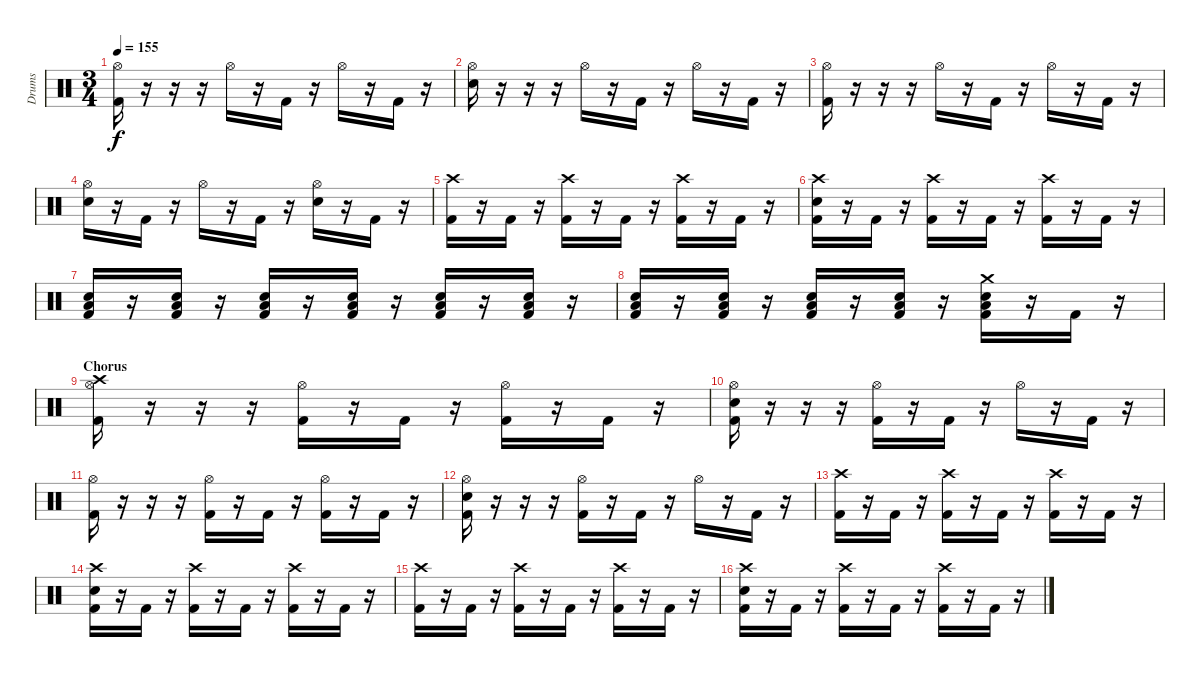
\track ("Drums" "Drums") {instrument percussion}
\staff {score}
\articulation defaults
\ts (3 4)
\tempo 155
\clef neutral
\ks c
("Hi-Hat (open)" "Kick (hit) 2").16{dy f} r.16 r.16 r.16 "Hi-Hat (open)".16 r.16 "Kick (hit) 2".16 r.16 "Hi-Hat (open)".16 r.16 "Kick (hit) 2".16 r.16 |
("Hi-Hat (open)" "Snare (hit) 2").16 r.16 r.16 r.16 "Hi-Hat (open)".16 r.16 "Kick (hit) 2".16 r.16 "Hi-Hat (open)".16 r.16 "Kick (hit) 2".16 r.16 |
("Hi-Hat (open)" "Kick (hit) 2").16 r.16 r.16 r.16 "Hi-Hat (open)".16 r.16 "Kick (hit) 2".16 r.16 "Hi-Hat (open)".16 r.16 "Kick (hit) 2".16 r.16 |
("Hi-Hat (open)" "Snare (hit) 2").16 r.16 "Kick (hit) 2".16 r.16 "Hi-Hat (open)".16 r.16 "Kick (hit) 2".16 r.16 ("Hi-Hat (open)" "Snare (hit) 2").16 r.16 "Kick (hit) 2".16 r.16 |
("Crash high (hit)" "Kick (hit) 2").16 r.16 "Kick (hit) 2".16 r.16 ("Crash high (hit)" "Kick (hit) 2").16 r.16 "Kick (hit) 2".16 r.16 ("Crash high (hit)" "Kick (hit) 2").16 r.16 "Kick (hit) 2".16 r.16 |
("Crash high (hit)" "Snare (hit) 2" "Kick (hit) 2").16 r.16 "Kick (hit) 2".16 r.16 ("Crash high (hit)" "Kick (hit) 2").16 r.16 "Kick (hit) 2".16 r.16 ("Crash high (hit)" "Kick (hit) 2").16 r.16 "Kick (hit) 2".16 r.16 |
("Low Floor Tom (hit)" "Snare (hit) 2" "Kick (hit) 2").16 r.16 ("Low Floor Tom (hit)" "Snare (hit) 2" "Kick (hit) 2").16 r.16 ("Low Floor Tom (hit)" "Snare (hit) 2" "Kick (hit) 2").16 r.16 ("Low Floor Tom (hit)" "Snare (hit) 2" "Kick (hit) 2").16 r.16 ("Low Floor Tom (hit)" "Snare (hit) 2" "Kick (hit) 2").16 r.16 ("Low Floor Tom (hit)" "Snare (hit) 2" "Kick (hit) 2").16 r.16 |
("Low Floor Tom (hit)" "Snare (hit) 2" "Kick (hit) 2").16 r.16 ("Low Floor Tom (hit)" "Snare (hit) 2" "Kick (hit) 2").16 r.16 ("Low Floor Tom (hit)" "Snare (hit) 2" "Kick (hit) 2").16 r.16 ("Low Floor Tom (hit)" "Snare (hit) 2" "Kick (hit) 2").16 r.16 ("Crash medium (hit)" "Low Floor Tom (hit)" "Snare (hit) 2" "Kick (hit) 2").16 r.16 "Kick (hit) 2".16 r.16 |
\section ("" "Chorus")
("Crash high (hit)" "Hi-Hat (open)" "Kick (hit) 2").16 r.16 r.16 r.16 ("Hi-Hat (open)" "Kick (hit) 2").16 r.16 "Kick (hit) 2".16 r.16 ("Hi-Hat (open)" "Kick (hit) 2").16 r.16 "Kick (hit) 2".16 r.16 |
("Hi-Hat (open)" "Snare (hit) 2" "Kick (hit) 2").16 r.16 r.16 r.16 ("Hi-Hat (open)" "Kick (hit) 2").16 r.16 "Kick (hit) 2".16 r.16 "Hi-Hat (open)".16 r.16 "Kick (hit) 2".16 r.16 |
("Hi-Hat (open)" "Kick (hit) 2").16 r.16 r.16 r.16 ("Hi-Hat (open)" "Kick (hit) 2").16 r.16 "Kick (hit) 2".16 r.16 ("Hi-Hat (open)" "Kick (hit) 2").16 r.16 "Kick (hit) 2".16 r.16 |
("Hi-Hat (open)" "Snare (hit) 2" "Kick (hit) 2").16 r.16 r.16 r.16 ("Hi-Hat (open)" "Kick (hit) 2").16 r.16 "Kick (hit) 2".16 r.16 "Hi-Hat (open)".16 r.16 "Kick (hit) 2".16 r.16 |
("Crash high (hit)" "Kick (hit) 2").16 r.16 "Kick (hit) 2".16 r.16 ("Crash high (hit)" "Kick (hit) 2").16 r.16 "Kick (hit) 2".16 r.16 ("Crash high (hit)" "Kick (hit) 2").16 r.16 "Kick (hit) 2".16 r.16 |
("Crash high (hit)" "Snare (hit) 2" "Kick (hit) 2").16 r.16 "Kick (hit) 2".16 r.16 ("Crash high (hit)" "Kick (hit) 2").16 r.16 "Kick (hit) 2".16 r.16 ("Crash high (hit)" "Kick (hit) 2").16 r.16 "Kick (hit) 2".16 r.16 |
("Crash high (hit)" "Kick (hit) 2").16 r.16 "Kick (hit) 2".16 r.16 ("Crash high (hit)" "Kick (hit) 2").16 r.16 "Kick (hit) 2".16 r.16 ("Crash high (hit)" "Kick (hit) 2").16 r.16 "Kick (hit) 2".16 r.16 |
("Crash high (hit)" "Snare (hit) 2" "Kick (hit) 2").16 r.16 "Kick (hit) 2".16 r.16 ("Crash high (hit)" "Kick (hit) 2").16 r.16 "Kick (hit) 2".16 r.16 ("Crash high (hit)" "Kick (hit) 2").16 r.16 "Kick (hit) 2".16 r.16
